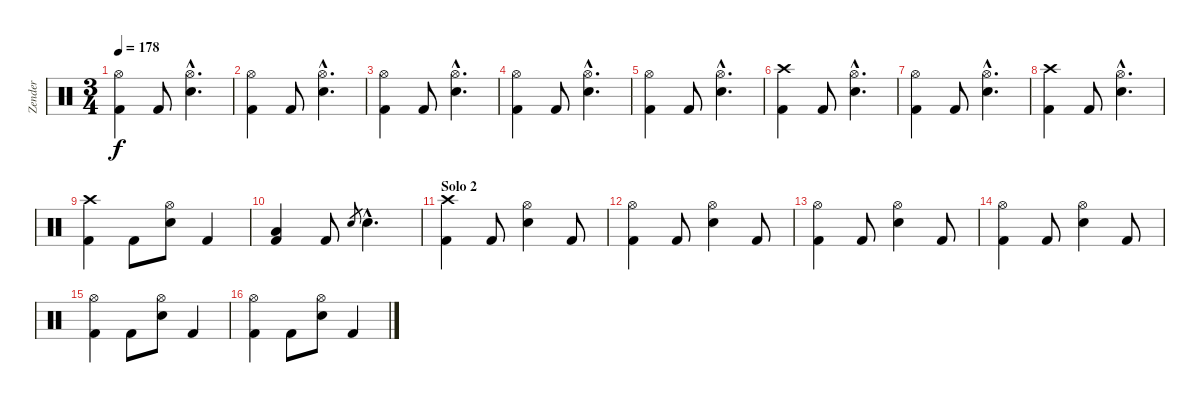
\track ("Zender" "Zender") {instrument percussion}
\staff {score}
\articulation defaults
\ts (3 4)
\tempo 178
\clef neutral
\ks c
("Hi-Hat (open)" "Kick (hit) 2").4{dy f} "Kick (hit) 2".8 ("Electric Snare (hit)"{hac} "Hi-Hat (open)"{hac}).4{d} |
("Hi-Hat (open)" "Kick (hit) 2").4 "Kick (hit) 2".8 ("Electric Snare (hit)"{hac} "Hi-Hat (open)"{hac}).4{d} |
("Hi-Hat (open)" "Kick (hit) 2").4 "Kick (hit) 2".8 ("Electric Snare (hit)"{hac} "Hi-Hat (open)"{hac}).4{d} |
("Hi-Hat (open)" "Kick (hit) 2").4 "Kick (hit) 2".8 ("Electric Snare (hit)"{hac} "Hi-Hat (open)"{hac}).4{d} |
("Hi-Hat (open)" "Kick (hit) 2").4 "Kick (hit) 2".8 ("Electric Snare (hit)"{hac} "Hi-Hat (open)"{hac}).4{d} |
("Crash high (hit)" "Kick (hit) 2").4 "Kick (hit) 2".8 ("Electric Snare (hit)"{hac} "Hi-Hat (open)"{hac}).4{d} |
("Hi-Hat (open)" "Kick (hit) 2").4 "Kick (hit) 2".8 ("Electric Snare (hit)"{hac} "Hi-Hat (open)"{hac}).4{d} |
("Crash high (hit)" "Kick (hit) 2").4 "Kick (hit) 2".8 ("Electric Snare (hit)"{hac} "Hi-Hat (open)"{hac}).4{d} |
("Crash high (hit)" "Kick (hit) 2").4 "Kick (hit) 2".8 ("Electric Snare (hit)" "Hi-Hat (open)").8 "Kick (hit) 2".4 |
("Low Floor Tom (hit)" "Kick (hit) 2").4 "Kick (hit) 2".8 "Electric Snare (hit)".8{gr} "Electric Snare (hit)"{hac}.4{d} |
\section ("" "Solo 2")
("Crash high (hit)" "Kick (hit) 2").4 "Kick (hit) 2".8 ("Electric Snare (hit)" "Hi-Hat (open)").4 "Kick (hit) 2".8 |
("Hi-Hat (open)" "Kick (hit) 2").4 "Kick (hit) 2".8 ("Electric Snare (hit)" "Hi-Hat (open)").4 "Kick (hit) 2".8 |
("Hi-Hat (open)" "Kick (hit) 2").4 "Kick (hit) 2".8 ("Electric Snare (hit)" "Hi-Hat (open)").4 "Kick (hit) 2".8 |
("Hi-Hat (open)" "Kick (hit) 2").4 "Kick (hit) 2".8 ("Electric Snare (hit)" "Hi-Hat (open)").4 "Kick (hit) 2".8 |
("Hi-Hat (open)" "Kick (hit) 2").4 "Kick (hit) 2".8 ("Electric Snare (hit)" "Hi-Hat (open)").8 "Kick (hit) 2".4 |
("Hi-Hat (open)" "Kick (hit) 2").4 "Kick (hit) 2".8 ("Electric Snare (hit)" "Hi-Hat (open)").8 "Kick (hit) 2".4
